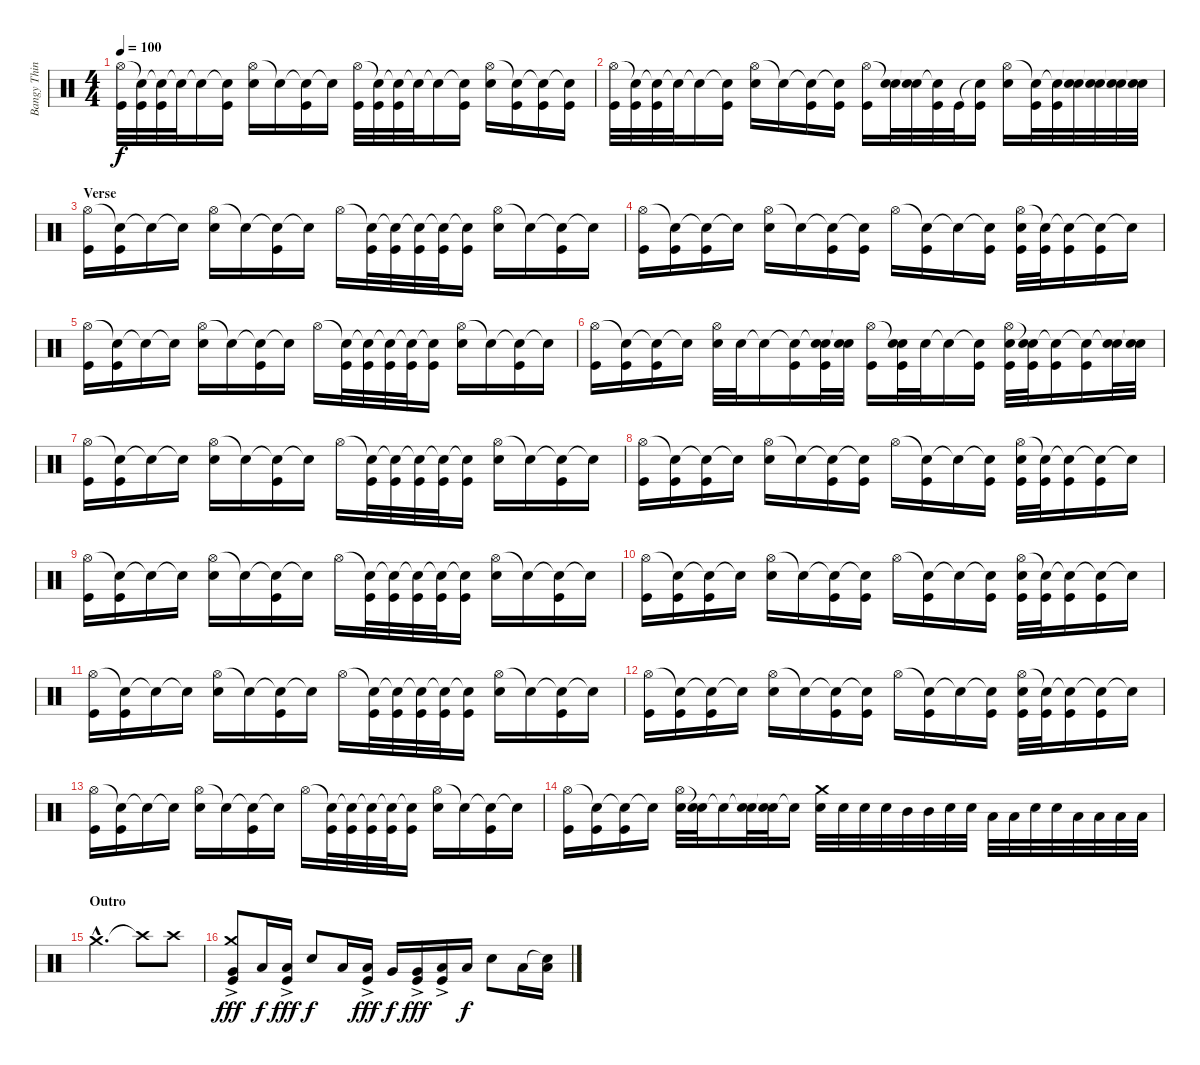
\track ("Bangy Things" "Bangy Thin") {instrument percussion}
\staff {score}
\articulation defaults
\ts (4 4)
\tempo 100
\clef neutral
\ks c
("Hi-Hat (open)" "Kick (hit)").32{dy f} ("Snare (hit)"{t} "Kick (hit)").32 ("Snare (hit)"{t} "Kick (hit)").32 "Snare (hit)"{t}.32 "Snare (hit)"{t}.16 ("Snare (hit)"{t} "Kick (hit)").16 ("Hi-Hat (open)" "Electric Snare (hit)").16 "Snare (hit)"{t}.16 ("Snare (hit)"{t} "Kick (hit)").16 "Snare (hit)"{t}.16 ("Hi-Hat (open)" "Kick (hit)").32 ("Snare (hit)"{t} "Kick (hit)").32 ("Snare (hit)"{t} "Kick (hit)").32 "Snare (hit)"{t}.32 "Snare (hit)"{t}.16 ("Snare (hit)"{t} "Kick (hit)").16 ("Hi-Hat (open)" "Electric Snare (hit)").16 ("Snare (hit)"{t} "Kick (hit)").16 ("Snare (hit)"{t} "Kick (hit)").16 ("Snare (hit)"{t} "Kick (hit)").16 |
("Hi-Hat (open)" "Kick (hit)").32 ("Snare (hit)"{t} "Kick (hit)").32 ("Snare (hit)"{t} "Kick (hit)").32 "Snare (hit)"{t}.32 "Snare (hit)"{t}.16 ("Snare (hit)"{t} "Kick (hit)").16 ("Hi-Hat (open)" "Electric Snare (hit)").16 "Snare (hit)"{t}.16 ("Snare (hit)"{t} "Kick (hit)").16 ("Snare (hit)"{t} "Kick (hit)").16 ("Hi-Hat (open)" "Kick (hit)").16 ("Snare (hit)"{t} "Electric Snare (hit)").32 ("Snare (hit)"{t} "Electric Snare (hit)").32 ("Snare (hit)"{t} "Kick (hit)").32 "Kick (hit)".32 ("Snare (hit)"{t} "Kick (hit)").16 ("Hi-Hat (open)" "Electric Snare (hit)").16 ("Snare (hit)"{t} "Kick (hit)").32 ("Snare (hit)"{t} "Kick (hit)").32 ("Snare (hit)"{t} "Electric Snare (hit)").32 ("Snare (hit)"{t} "Electric Snare (hit)").32 ("Snare (hit)"{t} "Electric Snare (hit)").32 ("Snare (hit)"{t} "Electric Snare (hit)").32 |
\section ("" "Verse")
("Hi-Hat (open)" "Kick (hit)").16 ("Snare (hit)"{t} "Kick (hit)").16 "Snare (hit)"{t}.16 "Snare (hit)"{t}.16 ("Hi-Hat (open)" "Electric Snare (hit)").16 "Snare (hit)"{t}.16 ("Snare (hit)"{t} "Kick (hit)").16 "Snare (hit)"{t}.16 "Hi-Hat (open)".16 ("Snare (hit)"{t} "Kick (hit)").32 ("Snare (hit)"{t} "Kick (hit)").32 ("Snare (hit)"{t} "Kick (hit)").32 ("Snare (hit)"{t} "Kick (hit)").32 ("Snare (hit)"{t} "Kick (hit)").16 ("Hi-Hat (open)" "Electric Snare (hit)").16 "Snare (hit)"{t}.16 ("Snare (hit)"{t} "Kick (hit)").16 "Snare (hit)"{t}.16 |
("Hi-Hat (open)" "Kick (hit)").16 ("Snare (hit)"{t} "Kick (hit)").16 ("Snare (hit)"{t} "Kick (hit)").16 "Snare (hit)"{t}.16 ("Hi-Hat (open)" "Electric Snare (hit)").16 "Snare (hit)"{t}.16 ("Snare (hit)"{t} "Kick (hit)").16 ("Snare (hit)"{t} "Kick (hit)").16 "Hi-Hat (open)".16 ("Snare (hit)"{t} "Kick (hit)").16 "Snare (hit)"{t}.16 ("Snare (hit)"{t} "Kick (hit)").16 ("Hi-Hat (open)" "Electric Snare (hit)" "Kick (hit)").32 ("Snare (hit)"{t} "Kick (hit)").32 ("Snare (hit)"{t} "Kick (hit)").16 ("Snare (hit)"{t} "Kick (hit)").16 "Snare (hit)"{t}.16 |
("Hi-Hat (open)" "Kick (hit)").16 ("Snare (hit)"{t} "Kick (hit)").16 "Snare (hit)"{t}.16 "Snare (hit)"{t}.16 ("Hi-Hat (open)" "Electric Snare (hit)").16 "Snare (hit)"{t}.16 ("Snare (hit)"{t} "Kick (hit)").16 "Snare (hit)"{t}.16 "Hi-Hat (open)".16 ("Snare (hit)"{t} "Kick (hit)").32 ("Snare (hit)"{t} "Kick (hit)").32 ("Snare (hit)"{t} "Kick (hit)").32 ("Snare (hit)"{t} "Kick (hit)").32 ("Snare (hit)"{t} "Kick (hit)").16 ("Hi-Hat (open)" "Electric Snare (hit)").16 "Snare (hit)"{t}.16 ("Snare (hit)"{t} "Kick (hit)").16 "Snare (hit)"{t}.16 |
("Hi-Hat (open)" "Kick (hit)").16 ("Snare (hit)"{t} "Kick (hit)").16 ("Snare (hit)"{t} "Kick (hit)").16 "Snare (hit)"{t}.16 ("Hi-Hat (open)" "Electric Snare (hit)").32 "Electric Snare (hit)".32 "Snare (hit)"{t}.16 ("Snare (hit)"{t} "Kick (hit)").16 ("Snare (hit)"{t} "Electric Snare (hit)" "Kick (hit)").32 ("Snare (hit)"{t} "Electric Snare (hit)").32 ("Hi-Hat (open)" "Kick (hit)").16 ("Snare (hit)"{t} "Electric Snare (hit)" "Kick (hit)").32 "Electric Snare (hit)".32 "Snare (hit)"{t}.16 ("Snare (hit)"{t} "Kick (hit)").16 ("Hi-Hat (open)" "Electric Snare (hit)" "Kick (hit)").32 ("Snare (hit)"{t} "Electric Snare (hit)" "Kick (hit)").32 ("Snare (hit)"{t} "Kick (hit)").16 ("Snare (hit)"{t} "Kick (hit)").16 ("Snare (hit)"{t} "Electric Snare (hit)").32 ("Snare (hit)"{t} "Electric Snare (hit)").32 |
("Hi-Hat (open)" "Kick (hit)").16 ("Snare (hit)"{t} "Kick (hit)").16 "Snare (hit)"{t}.16 "Snare (hit)"{t}.16 ("Hi-Hat (open)" "Electric Snare (hit)").16 "Snare (hit)"{t}.16 ("Snare (hit)"{t} "Kick (hit)").16 "Snare (hit)"{t}.16 "Hi-Hat (open)".16 ("Snare (hit)"{t} "Kick (hit)").32 ("Snare (hit)"{t} "Kick (hit)").32 ("Snare (hit)"{t} "Kick (hit)").32 ("Snare (hit)"{t} "Kick (hit)").32 ("Snare (hit)"{t} "Kick (hit)").16 ("Hi-Hat (open)" "Electric Snare (hit)").16 "Snare (hit)"{t}.16 ("Snare (hit)"{t} "Kick (hit)").16 "Snare (hit)"{t}.16 |
("Hi-Hat (open)" "Kick (hit)").16 ("Snare (hit)"{t} "Kick (hit)").16 ("Snare (hit)"{t} "Kick (hit)").16 "Snare (hit)"{t}.16 ("Hi-Hat (open)" "Electric Snare (hit)").16 "Snare (hit)"{t}.16 ("Snare (hit)"{t} "Kick (hit)").16 ("Snare (hit)"{t} "Kick (hit)").16 "Hi-Hat (open)".16 ("Snare (hit)"{t} "Kick (hit)").16 "Snare (hit)"{t}.16 ("Snare (hit)"{t} "Kick (hit)").16 ("Hi-Hat (open)" "Electric Snare (hit)" "Kick (hit)").32 ("Snare (hit)"{t} "Kick (hit)").32 ("Snare (hit)"{t} "Kick (hit)").16 ("Snare (hit)"{t} "Kick (hit)").16 "Snare (hit)"{t}.16 |
("Hi-Hat (open)" "Kick (hit)").16 ("Snare (hit)"{t} "Kick (hit)").16 "Snare (hit)"{t}.16 "Snare (hit)"{t}.16 ("Hi-Hat (open)" "Electric Snare (hit)").16 "Snare (hit)"{t}.16 ("Snare (hit)"{t} "Kick (hit)").16 "Snare (hit)"{t}.16 "Hi-Hat (open)".16 ("Snare (hit)"{t} "Kick (hit)").32 ("Snare (hit)"{t} "Kick (hit)").32 ("Snare (hit)"{t} "Kick (hit)").32 ("Snare (hit)"{t} "Kick (hit)").32 ("Snare (hit)"{t} "Kick (hit)").16 ("Hi-Hat (open)" "Electric Snare (hit)").16 "Snare (hit)"{t}.16 ("Snare (hit)"{t} "Kick (hit)").16 "Snare (hit)"{t}.16 |
("Hi-Hat (open)" "Kick (hit)").16 ("Snare (hit)"{t} "Kick (hit)").16 ("Snare (hit)"{t} "Kick (hit)").16 "Snare (hit)"{t}.16 ("Hi-Hat (open)" "Electric Snare (hit)").16 "Snare (hit)"{t}.16 ("Snare (hit)"{t} "Kick (hit)").16 ("Snare (hit)"{t} "Kick (hit)").16 "Hi-Hat (open)".16 ("Snare (hit)"{t} "Kick (hit)").16 "Snare (hit)"{t}.16 ("Snare (hit)"{t} "Kick (hit)").16 ("Hi-Hat (open)" "Electric Snare (hit)" "Kick (hit)").32 ("Snare (hit)"{t} "Kick (hit)").32 ("Snare (hit)"{t} "Kick (hit)").16 ("Snare (hit)"{t} "Kick (hit)").16 "Snare (hit)"{t}.16 |
("Hi-Hat (open)" "Kick (hit)").16 ("Snare (hit)"{t} "Kick (hit)").16 "Snare (hit)"{t}.16 "Snare (hit)"{t}.16 ("Hi-Hat (open)" "Electric Snare (hit)").16 "Snare (hit)"{t}.16 ("Snare (hit)"{t} "Kick (hit)").16 "Snare (hit)"{t}.16 "Hi-Hat (open)".16 ("Snare (hit)"{t} "Kick (hit)").32 ("Snare (hit)"{t} "Kick (hit)").32 ("Snare (hit)"{t} "Kick (hit)").32 ("Snare (hit)"{t} "Kick (hit)").32 ("Snare (hit)"{t} "Kick (hit)").16 ("Hi-Hat (open)" "Electric Snare (hit)").16 "Snare (hit)"{t}.16 ("Snare (hit)"{t} "Kick (hit)").16 "Snare (hit)"{t}.16 |
("Hi-Hat (open)" "Kick (hit)").16 ("Snare (hit)"{t} "Kick (hit)").16 ("Snare (hit)"{t} "Kick (hit)").16 "Snare (hit)"{t}.16 ("Hi-Hat (open)" "Electric Snare (hit)").16 "Snare (hit)"{t}.16 ("Snare (hit)"{t} "Kick (hit)").16 ("Snare (hit)"{t} "Kick (hit)").16 "Hi-Hat (open)".16 ("Snare (hit)"{t} "Kick (hit)").16 "Snare (hit)"{t}.16 ("Snare (hit)"{t} "Kick (hit)").16 ("Hi-Hat (open)" "Electric Snare (hit)" "Kick (hit)").32 ("Snare (hit)"{t} "Kick (hit)").32 ("Snare (hit)"{t} "Kick (hit)").16 ("Snare (hit)"{t} "Kick (hit)").16 "Snare (hit)"{t}.16 |
("Hi-Hat (open)" "Kick (hit)").16 ("Snare (hit)"{t} "Kick (hit)").16 "Snare (hit)"{t}.16 "Snare (hit)"{t}.16 ("Hi-Hat (open)" "Electric Snare (hit)").16 "Snare (hit)"{t}.16 ("Snare (hit)"{t} "Kick (hit)").16 "Snare (hit)"{t}.16 "Hi-Hat (open)".16 ("Snare (hit)"{t} "Kick (hit)").32 ("Snare (hit)"{t} "Kick (hit)").32 ("Snare (hit)"{t} "Kick (hit)").32 ("Snare (hit)"{t} "Kick (hit)").32 ("Snare (hit)"{t} "Kick (hit)").16 ("Hi-Hat (open)" "Electric Snare (hit)").16 "Snare (hit)"{t}.16 ("Snare (hit)"{t} "Kick (hit)").16 "Snare (hit)"{t}.16 |
("Hi-Hat (open)" "Kick (hit)").16 ("Snare (hit)"{t} "Kick (hit)").16 ("Snare (hit)"{t} "Kick (hit)").16 "Snare (hit)"{t}.16 ("Hi-Hat (open)" "Electric Snare (hit)").32 ("Snare (hit)"{t} "Electric Snare (hit)").32 "Snare (hit)"{t}.16 ("Snare (hit)"{t} "Electric Snare (hit)").32 ("Snare (hit)"{t} "Electric Snare (hit)").32 "Snare (hit)"{t}.16 ("Crash medium (hit)" "Electric Snare (hit)").32 "Electric Snare (hit)".32 "Electric Snare (hit)".32 "Electric Snare (hit)".32 "Mid Tom (hit)".32 "Mid Tom (hit)".32 "Electric Snare (hit)".32 "Electric Snare (hit)".32 "Low Tom (hit)".32 "Low Tom (hit)".32 "Electric Snare (hit)".32 "Electric Snare (hit)".32 "Low Floor Tom (hit)".32 "Low Floor Tom (hit)".32 "Low Floor Tom (hit)".32 "Low Floor Tom (hit)".32 |
\section ("" "Outro")
"Crash medium (hit)"{hac}.2{d} "Crash high (hit)"{t}.8 "Crash high (hit)".8 |
("Crash medium (hit)"{ac} "Very Low Tom (hit)" "Kick (hit)"{ac}).8{dy fff} "Low Floor Tom (hit)".16{dy f} ("Low Floor Tom (hit)" "Kick (hit)"{ac}).16{dy fff} "Electric Snare (hit)".8{dy f} "Low Floor Tom (hit)".16 ("Low Floor Tom (hit)" "Kick (hit)"{ac}).16{dy fff} "Very Low Tom (hit)".16{dy f} ("Very Low Tom (hit)" "Kick (hit)"{ac}).16{dy fff} ("Low Floor Tom (hit)" "Kick (hit)"{ac}).16 "Low Floor Tom (hit)".16{dy f} "Electric Snare (hit)".8 "Low Floor Tom (hit)".16 ("Snare (hit)"{t} "Low Floor Tom (hit)").16
